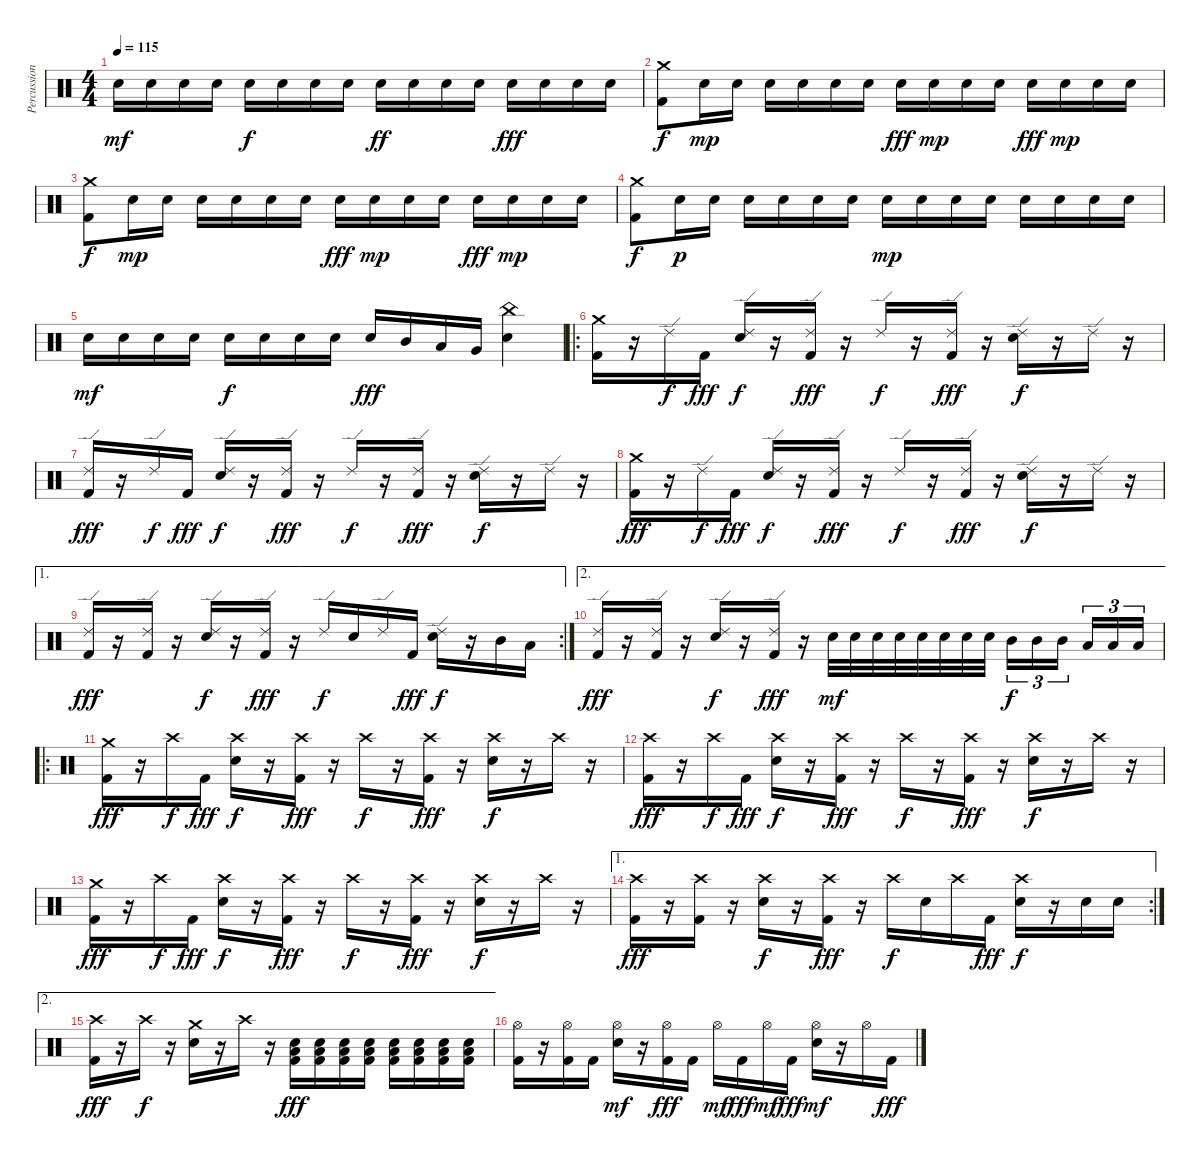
\track ("Percussion" "Percussion") {instrument percussion}
\staff {score}
\articulation defaults
\ts (4 4)
\tempo 115
\clef neutral
\ks c "Electric Snare (hit)".16{dy mf} "Electric Snare (hit)".16 "Electric Snare (hit)".16 "Electric Snare (hit)".16 "Electric Snare (hit)".16{dy f} "Electric Snare (hit)".16 "Electric Snare (hit)".16 "Electric Snare (hit)".16 "Electric Snare (hit)".16{dy ff} "Electric Snare (hit)".16 "Electric Snare (hit)".16 "Electric Snare (hit)".16 "Electric Snare (hit)".16{dy fff} "Electric Snare (hit)".16 "Electric Snare (hit)".16 "Electric Snare (hit)".16
|
("Crash medium (hit)" "Kick (hit) 2").8{dy f} "Electric Snare (hit)".16{dy mp} "Electric Snare (hit)".16 "Electric Snare (hit)".16 "Electric Snare (hit)".16 "Electric Snare (hit)".16 "Electric Snare (hit)".16 "Electric Snare (hit)".16{dy fff} "Electric Snare (hit)".16{dy mp} "Electric Snare (hit)".16 "Electric Snare (hit)".16 "Electric Snare (hit)".16{dy fff} "Electric Snare (hit)".16{dy mp} "Electric Snare (hit)".16 "Electric Snare (hit)".16 |
("Crash medium (hit)" "Kick (hit) 2").8{dy f} "Electric Snare (hit)".16{dy mp} "Electric Snare (hit)".16 "Electric Snare (hit)".16 "Electric Snare (hit)".16 "Electric Snare (hit)".16 "Electric Snare (hit)".16 "Electric Snare (hit)".16{dy fff} "Electric Snare (hit)".16{dy mp} "Electric Snare (hit)".16 "Electric Snare (hit)".16 "Electric Snare (hit)".16{dy fff} "Electric Snare (hit)".16{dy mp} "Electric Snare (hit)".16 "Electric Snare (hit)".16 |
("Crash medium (hit)" "Kick (hit) 2").8{dy f} "Electric Snare (hit)".16{dy p} "Electric Snare (hit)".16 "Electric Snare (hit)".16 "Electric Snare (hit)".16 "Electric Snare (hit)".16 "Electric Snare (hit)".16 "Electric Snare (hit)".16{dy mp} "Electric Snare (hit)".16 "Electric Snare (hit)".16 "Electric Snare (hit)".16 "Electric Snare (hit)".16 "Electric Snare (hit)".16 "Electric Snare (hit)".16 "Electric Snare (hit)".16 |
"Electric Snare (hit)".16{dy mf} "Electric Snare (hit)".16 "Electric Snare (hit)".16 "Electric Snare (hit)".16 "Electric Snare (hit)".16{dy f} "Electric Snare (hit)".16 "Electric Snare (hit)".16 "Electric Snare (hit)".16 "Electric Snare (hit)".16{dy fff} "Mid Tom (hit)".16 "Low Tom (hit)".16 "Very Low Tom (hit)".16 ("China (hit)" "Electric Snare (hit)").4 |
\ro
("Crash medium (hit)" "Kick (hit) 2").16 r.16 "Ride (edge) 2".16{dy f} "Kick (hit) 2".16{dy fff} ("Ride (edge) 2" "Electric Snare (hit)").16{dy f} r.16 ("Ride (edge) 2" "Kick (hit) 2").16{dy fff} r.16 "Ride (edge) 2".16{dy f} r.16 ("Ride (edge) 2" "Kick (hit) 2").16{dy fff} r.16 ("Ride (edge) 2" "Electric Snare (hit)").16{dy f} r.16 "Ride (edge) 2".16 r.16 |
("Ride (edge) 2" "Kick (hit) 2").16{dy fff} r.16 "Ride (edge) 2".16{dy f} "Kick (hit) 2".16{dy fff} ("Ride (edge) 2" "Electric Snare (hit)").16{dy f} r.16 ("Ride (edge) 2" "Kick (hit) 2").16{dy fff} r.16 "Ride (edge) 2".16{dy f} r.16 ("Ride (edge) 2" "Kick (hit) 2").16{dy fff} r.16 ("Ride (edge) 2" "Electric Snare (hit)").16{dy f} r.16 "Ride (edge) 2".16 r.16 |
("Crash medium (hit)" "Kick (hit) 2").16{dy fff} r.16 "Ride (edge) 2".16{dy f} "Kick (hit) 2".16{dy fff} ("Ride (edge) 2" "Electric Snare (hit)").16{dy f} r.16 ("Ride (edge) 2" "Kick (hit) 2").16{dy fff} r.16 "Ride (edge) 2".16{dy f} r.16 ("Ride (edge) 2" "Kick (hit) 2").16{dy fff} r.16 ("Ride (edge) 2" "Electric Snare (hit)").16{dy f} r.16 "Ride (edge) 2".16 r.16 |
\ae 1
\rc 2
("Ride (edge) 2" "Kick (hit) 2").16{dy fff} r.16 ("Ride (edge) 2" "Kick (hit) 2").16 r.16 ("Ride (edge) 2" "Electric Snare (hit)").16{dy f} r.16 ("Ride (edge) 2" "Kick (hit) 2").16{dy fff} r.16 "Ride (edge) 2".16{dy f} "Electric Snare (hit)".16 "Ride (edge) 2".16 "Kick (hit) 2".16{dy fff} ("Ride (edge) 2" "Electric Snare (hit)").16{dy f} r.16 "Mid Tom (hit)".16 "Low Tom (hit)".16 |
\ae 2
("Ride (edge) 2" "Kick (hit) 2").16{dy fff} r.16 ("Ride (edge) 2" "Kick (hit) 2").16 r.16 ("Ride (edge) 2" "Electric Snare (hit)").16{dy f} r.16 ("Ride (edge) 2" "Kick (hit) 2").16{dy fff} r.16 "Electric Snare (hit)".32{dy mf} "Electric Snare (hit)".32 "Electric Snare (hit)".32 "Electric Snare (hit)".32 "Electric Snare (hit)".32 "Electric Snare (hit)".32 "Electric Snare (hit)".32 "Electric Snare (hit)".32 "Mid Tom (hit)".16{tu (3 2) dy f} "Mid Tom (hit)".16{tu (3 2)} "Mid Tom (hit)".16{tu (3 2)} "Low Tom (hit)".16{tu (3 2)} "Low Tom (hit)".16{tu (3 2)} "Low Tom (hit)".16{tu (3 2)} |
\ro
("Crash medium (hit)" "Kick (hit) 2").16{dy fff} r.16 "Crash high (hit)".16{dy f} "Kick (hit) 2".16{dy fff} ("Crash high (hit)" "Electric Snare (hit)").16{dy f} r.16 ("Crash high (hit)" "Kick (hit) 2").16{dy fff} r.16 "Crash high (hit)".16{dy f} r.16 ("Crash high (hit)" "Kick (hit) 2").16{dy fff} r.16 ("Crash high (hit)" "Electric Snare (hit)").16{dy f} r.16 "Crash high (hit)".16 r.16 |
("Crash high (hit)" "Kick (hit) 2").16{dy fff} r.16 "Crash high (hit)".16{dy f} "Kick (hit) 2".16{dy fff} ("Crash high (hit)" "Electric Snare (hit)").16{dy f} r.16 ("Crash high (hit)" "Kick (hit) 2").16{dy fff} r.16 "Crash high (hit)".16{dy f} r.16 ("Crash high (hit)" "Kick (hit) 2").16{dy fff} r.16 ("Crash high (hit)" "Electric Snare (hit)").16{dy f} r.16 "Crash high (hit)".16 r.16 |
("Crash medium (hit)" "Kick (hit) 2").16{dy fff} r.16 "Crash high (hit)".16{dy f} "Kick (hit) 2".16{dy fff} ("Crash high (hit)" "Electric Snare (hit)").16{dy f} r.16 ("Crash high (hit)" "Kick (hit) 2").16{dy fff} r.16 "Crash high (hit)".16{dy f} r.16 ("Crash high (hit)" "Kick (hit) 2").16{dy fff} r.16 ("Crash high (hit)" "Electric Snare (hit)").16{dy f} r.16 "Crash high (hit)".16 r.16 |
\ae 1
\rc 2
("Crash high (hit)" "Kick (hit) 2").16{dy fff} r.16 ("Crash high (hit)" "Kick (hit) 2").16 r.16 ("Crash high (hit)" "Electric Snare (hit)").16{dy f} r.16 ("Crash high (hit)" "Kick (hit) 2").16{dy fff} r.16 "Crash high (hit)".16{dy f} "Electric Snare (hit)".16 "Crash high (hit)".16 "Kick (hit) 2".16{dy fff} ("Crash high (hit)" "Electric Snare (hit)").16{dy f} r.16 "Electric Snare (hit)".16 "Electric Snare (hit)".16 |
\ae 2
("Crash high (hit)" "Kick (hit) 2").16{dy fff} r.16 "Crash high (hit)".16{dy f} r.16 ("Crash medium (hit)" "Electric Snare (hit)").16 r.16 "Crash high (hit)".16 r.16 ("Low Floor Tom (hit)" "Electric Snare (hit)" "Kick (hit) 2").16{dy fff} ("Low Floor Tom (hit)" "Electric Snare (hit)" "Kick (hit) 2").16 ("Low Floor Tom (hit)" "Electric Snare (hit)" "Kick (hit) 2").16 ("Low Floor Tom (hit)" "Electric Snare (hit)" "Kick (hit) 2").16 ("Low Floor Tom (hit)" "Electric Snare (hit)" "Kick (hit) 2").16 ("Low Floor Tom (hit)" "Electric Snare (hit)" "Kick (hit) 2").16 ("Low Floor Tom (hit)" "Electric Snare (hit)" "Kick (hit) 2").16 ("Low Floor Tom (hit)" "Electric Snare (hit)" "Kick (hit) 2").16 |
("Hi-Hat (open)" "Kick (hit) 2").16 r.16 ("Hi-Hat (open)" "Kick (hit) 2").16 "Kick (hit) 2".16 ("Hi-Hat (open)" "Electric Snare (hit)").16{dy mf} r.16 ("Hi-Hat (open)" "Kick (hit) 2").16{dy fff} "Kick (hit) 2".16 "Hi-Hat (open)".16{dy mf} "Kick (hit) 2".16{dy fff} "Hi-Hat (open)".16{dy mf} "Kick (hit) 2".16{dy fff} ("Hi-Hat (open)" "Electric Snare (hit)").16{dy mf} r.16 "Hi-Hat (open)".16 "Kick (hit) 2".16{dy fff}
